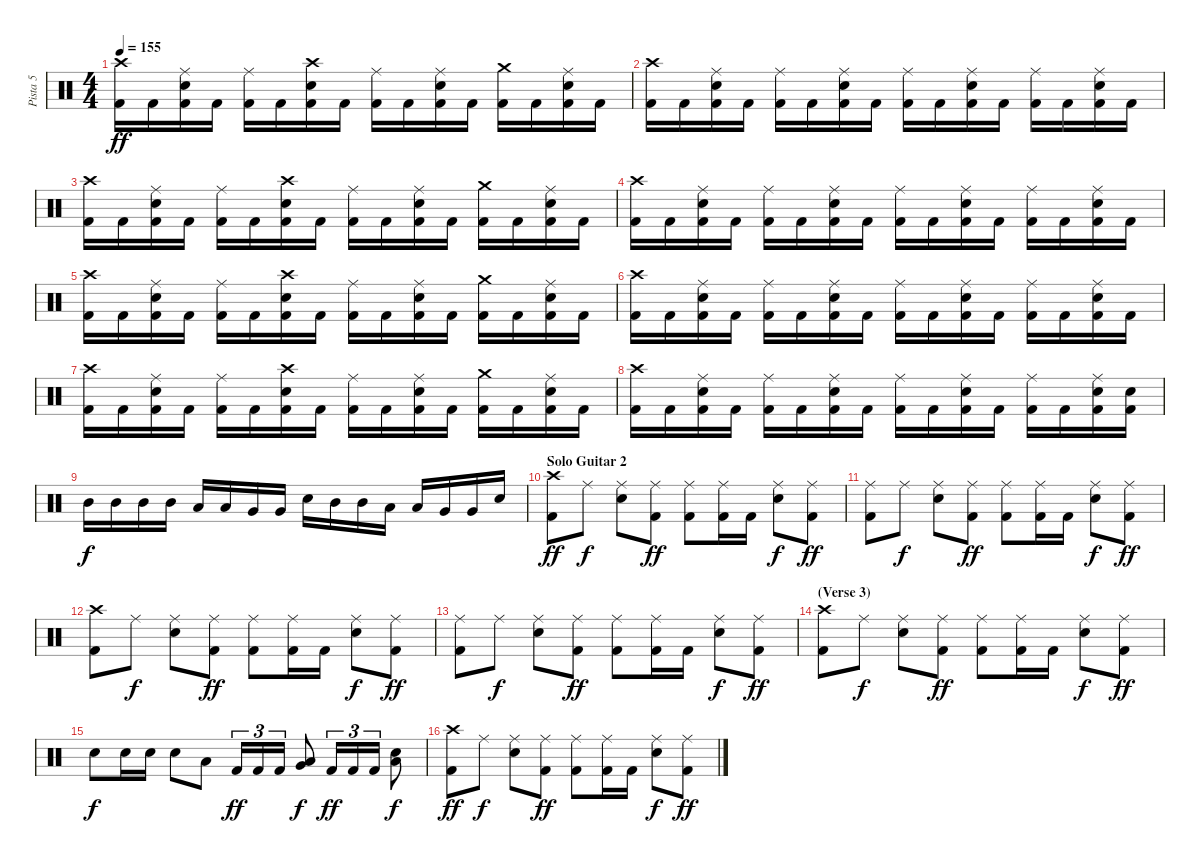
\track ("Pista 5" "Pista 5") {instrument percussion}
\staff {score}
\articulation defaults
\ts (4 4)
\tempo 155
\clef neutral
\ks c
("Crash high (hit)" "Kick (hit) 2").16{dy ff} "Kick (hit) 2".16 ("Ride (middle)" "Electric Snare (hit)" "Kick (hit) 2").16 "Kick (hit) 2".16 ("Ride (middle)" "Kick (hit) 2").16 "Kick (hit) 2".16 ("Crash high (hit)" "Electric Snare (hit)" "Kick (hit) 2").16 "Kick (hit) 2".16 ("Ride (middle)" "Kick (hit) 2").16 "Kick (hit) 2".16 ("Ride (middle)" "Electric Snare (hit)" "Kick (hit) 2").16 "Kick (hit) 2".16 ("Crash medium (hit)" "Kick (hit) 2").16 "Kick (hit) 2".16 ("Ride (middle)" "Electric Snare (hit)" "Kick (hit) 2").16 "Kick (hit) 2".16 |
("Crash high (hit)" "Kick (hit) 2").16 "Kick (hit) 2".16 ("Ride (middle)" "Electric Snare (hit)" "Kick (hit) 2").16 "Kick (hit) 2".16 ("Ride (middle)" "Kick (hit) 2").16 "Kick (hit) 2".16 ("Ride (middle)" "Electric Snare (hit)" "Kick (hit) 2").16 "Kick (hit) 2".16 ("Ride (middle)" "Kick (hit) 2").16 "Kick (hit) 2".16 ("Ride (middle)" "Electric Snare (hit)" "Kick (hit) 2").16 "Kick (hit) 2".16 ("Ride (middle)" "Kick (hit) 2").16 "Kick (hit) 2".16 ("Ride (middle)" "Electric Snare (hit)" "Kick (hit) 2").16 "Kick (hit) 2".16 |
("Crash high (hit)" "Kick (hit) 2").16 "Kick (hit) 2".16 ("Ride (middle)" "Electric Snare (hit)" "Kick (hit) 2").16 "Kick (hit) 2".16 ("Ride (middle)" "Kick (hit) 2").16 "Kick (hit) 2".16 ("Crash high (hit)" "Electric Snare (hit)" "Kick (hit) 2").16 "Kick (hit) 2".16 ("Ride (middle)" "Kick (hit) 2").16 "Kick (hit) 2".16 ("Ride (middle)" "Electric Snare (hit)" "Kick (hit) 2").16 "Kick (hit) 2".16 ("Crash medium (hit)" "Kick (hit) 2").16 "Kick (hit) 2".16 ("Ride (middle)" "Electric Snare (hit)" "Kick (hit) 2").16 "Kick (hit) 2".16 |
("Crash high (hit)" "Kick (hit) 2").16 "Kick (hit) 2".16 ("Ride (middle)" "Electric Snare (hit)" "Kick (hit) 2").16 "Kick (hit) 2".16 ("Ride (middle)" "Kick (hit) 2").16 "Kick (hit) 2".16 ("Ride (middle)" "Electric Snare (hit)" "Kick (hit) 2").16 "Kick (hit) 2".16 ("Ride (middle)" "Kick (hit) 2").16 "Kick (hit) 2".16 ("Ride (middle)" "Electric Snare (hit)" "Kick (hit) 2").16 "Kick (hit) 2".16 ("Ride (middle)" "Kick (hit) 2").16 "Kick (hit) 2".16 ("Ride (middle)" "Electric Snare (hit)" "Kick (hit) 2").16 "Kick (hit) 2".16 |
("Crash high (hit)" "Kick (hit) 2").16 "Kick (hit) 2".16 ("Ride (middle)" "Electric Snare (hit)" "Kick (hit) 2").16 "Kick (hit) 2".16 ("Ride (middle)" "Kick (hit) 2").16 "Kick (hit) 2".16 ("Crash high (hit)" "Electric Snare (hit)" "Kick (hit) 2").16 "Kick (hit) 2".16 ("Ride (middle)" "Kick (hit) 2").16 "Kick (hit) 2".16 ("Ride (middle)" "Electric Snare (hit)" "Kick (hit) 2").16 "Kick (hit) 2".16 ("Crash medium (hit)" "Kick (hit) 2").16 "Kick (hit) 2".16 ("Ride (middle)" "Electric Snare (hit)" "Kick (hit) 2").16 "Kick (hit) 2".16 |
("Crash high (hit)" "Kick (hit) 2").16 "Kick (hit) 2".16 ("Ride (middle)" "Electric Snare (hit)" "Kick (hit) 2").16 "Kick (hit) 2".16 ("Ride (middle)" "Kick (hit) 2").16 "Kick (hit) 2".16 ("Ride (middle)" "Electric Snare (hit)" "Kick (hit) 2").16 "Kick (hit) 2".16 ("Ride (middle)" "Kick (hit) 2").16 "Kick (hit) 2".16 ("Ride (middle)" "Electric Snare (hit)" "Kick (hit) 2").16 "Kick (hit) 2".16 ("Ride (middle)" "Kick (hit) 2").16 "Kick (hit) 2".16 ("Ride (middle)" "Electric Snare (hit)" "Kick (hit) 2").16 "Kick (hit) 2".16 |
("Crash high (hit)" "Kick (hit) 2").16 "Kick (hit) 2".16 ("Ride (middle)" "Electric Snare (hit)" "Kick (hit) 2").16 "Kick (hit) 2".16 ("Ride (middle)" "Kick (hit) 2").16 "Kick (hit) 2".16 ("Crash high (hit)" "Electric Snare (hit)" "Kick (hit) 2").16 "Kick (hit) 2".16 ("Ride (middle)" "Kick (hit) 2").16 "Kick (hit) 2".16 ("Ride (middle)" "Electric Snare (hit)" "Kick (hit) 2").16 "Kick (hit) 2".16 ("Crash medium (hit)" "Kick (hit) 2").16 "Kick (hit) 2".16 ("Ride (middle)" "Electric Snare (hit)" "Kick (hit) 2").16 "Kick (hit) 2".16 |
("Crash high (hit)" "Kick (hit) 2").16 "Kick (hit) 2".16 ("Ride (middle)" "Electric Snare (hit)" "Kick (hit) 2").16 "Kick (hit) 2".16 ("Ride (middle)" "Kick (hit) 2").16 "Kick (hit) 2".16 ("Ride (middle)" "Electric Snare (hit)" "Kick (hit) 2").16 "Kick (hit) 2".16 ("Ride (middle)" "Kick (hit) 2").16 "Kick (hit) 2".16 ("Ride (middle)" "Electric Snare (hit)" "Kick (hit) 2").16 "Kick (hit) 2".16 ("Ride (middle)" "Kick (hit) 2").16 "Kick (hit) 2".16 ("Ride (middle)" "Electric Snare (hit)" "Kick (hit) 2").16 ("Electric Snare (hit)" "Kick (hit) 2").16 |
"Mid Tom (hit)".16{dy f} "Mid Tom (hit)".16 "Mid Tom (hit)".16 "Mid Tom (hit)".16 "Low Tom (hit)".16 "Low Tom (hit)".16 "Very Low Tom (hit)".16 "Very Low Tom (hit)".16 "Electric Snare (hit)".16 "Mid Tom (hit)".16 "Mid Tom (hit)".16 "Low Tom (hit)".16 "Low Tom (hit)".16 "Very Low Tom (hit)".16 "Very Low Tom (hit)".16 "Electric Snare (hit)".16 |
\section ("" "Solo Guitar 2")
("Crash high (hit)" "Kick (hit) 2").8{dy ff} "Ride (middle)".8{dy f} ("Ride (middle)" "Electric Snare (hit)").8 ("Ride (middle)" "Kick (hit) 2").8{dy ff} ("Ride (middle)" "Kick (hit) 2").8 ("Ride (middle)" "Kick (hit) 2").16 "Kick (hit) 2".16 ("Ride (middle)" "Electric Snare (hit)").8{dy f} ("Ride (middle)" "Kick (hit) 2").8{dy ff} |
("Ride (middle)" "Kick (hit) 2").8 "Ride (middle)".8{dy f} ("Ride (middle)" "Electric Snare (hit)").8 ("Ride (middle)" "Kick (hit) 2").8{dy ff} ("Ride (middle)" "Kick (hit) 2").8 ("Ride (middle)" "Kick (hit) 2").16 "Kick (hit) 2".16 ("Ride (middle)" "Electric Snare (hit)").8{dy f} ("Ride (middle)" "Kick (hit) 2").8{dy ff} |
("Crash high (hit)" "Kick (hit) 2").8 "Ride (middle)".8{dy f} ("Ride (middle)" "Electric Snare (hit)").8 ("Ride (middle)" "Kick (hit) 2").8{dy ff} ("Ride (middle)" "Kick (hit) 2").8 ("Ride (middle)" "Kick (hit) 2").16 "Kick (hit) 2".16 ("Ride (middle)" "Electric Snare (hit)").8{dy f} ("Ride (middle)" "Kick (hit) 2").8{dy ff} |
("Ride (middle)" "Kick (hit) 2").8 "Ride (middle)".8{dy f} ("Ride (middle)" "Electric Snare (hit)").8 ("Ride (middle)" "Kick (hit) 2").8{dy ff} ("Ride (middle)" "Kick (hit) 2").8 ("Ride (middle)" "Kick (hit) 2").16 "Kick (hit) 2".16 ("Ride (middle)" "Electric Snare (hit)").8{dy f} ("Ride (middle)" "Kick (hit) 2").8{dy ff} |
\section ("" "(Verse 3)")
("Crash high (hit)" "Kick (hit) 2").8 "Ride (middle)".8{dy f} ("Ride (middle)" "Electric Snare (hit)").8 ("Ride (middle)" "Kick (hit) 2").8{dy ff} ("Ride (middle)" "Kick (hit) 2").8 ("Ride (middle)" "Kick (hit) 2").16 "Kick (hit) 2".16 ("Ride (middle)" "Electric Snare (hit)").8{dy f} ("Ride (middle)" "Kick (hit) 2").8{dy ff} |
"Electric Snare (hit)".8{dy f} "Electric Snare (hit)".16 "Electric Snare (hit)".16 "Electric Snare (hit)".8 "Low Tom (hit)".8 "Kick (hit) 2".16{tu (3 2) dy ff} "Kick (hit) 2".16{tu (3 2)} "Kick (hit) 2".16{tu (3 2)} ("Low Tom (hit)" "Very Low Tom (hit)").8{dy f} "Kick (hit) 2".16{tu (3 2) dy ff} "Kick (hit) 2".16{tu (3 2)} "Kick (hit) 2".16{tu (3 2)} ("Low Floor Tom (hit)" "Electric Snare (hit)").8{dy f} |
("Crash high (hit)" "Kick (hit) 2").8{dy ff} "Ride (middle)".8{dy f} ("Ride (middle)" "Electric Snare (hit)").8 ("Ride (middle)" "Kick (hit) 2").8{dy ff} ("Ride (middle)" "Kick (hit) 2").8 ("Ride (middle)" "Kick (hit) 2").16 "Kick (hit) 2".16 ("Ride (middle)" "Electric Snare (hit)").8{dy f} ("Ride (middle)" "Kick (hit) 2").8{dy ff}
